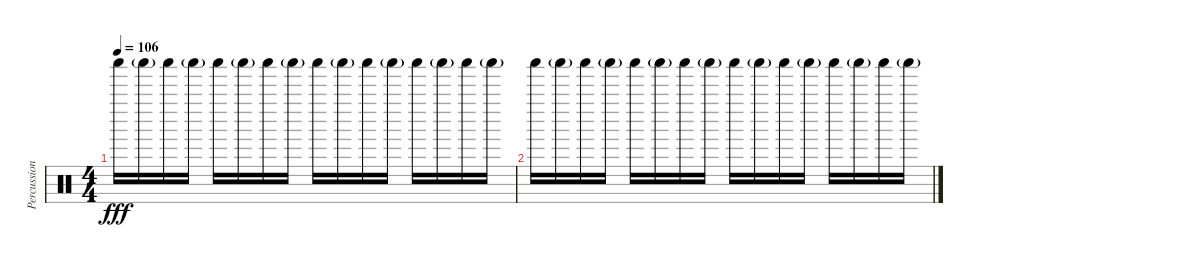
\track ("Percussion 1" "Percussion") {instrument percussion}
\staff {score}
\articulation defaults
\ts (4 4)
\tempo 106
\clef neutral
\ks c "Shaker (hit)".16{dy fff} "Shaker (hit)"{g}.16 "Shaker (hit)".16 "Shaker (hit)"{g}.16 "Shaker (hit)".16 "Shaker (hit)"{g}.16 "Shaker (hit)".16 "Shaker (hit)"{g}.16 "Shaker (hit)".16 "Shaker (hit)"{g}.16 "Shaker (hit)".16 "Shaker (hit)"{g}.16 "Shaker (hit)".16 "Shaker (hit)"{g}.16 "Shaker (hit)".16 "Shaker (hit)"{g}.16
|
"Shaker (hit)".16 "Shaker (hit)"{g}.16 "Shaker (hit)".16 "Shaker (hit)"{g}.16 "Shaker (hit)".16 "Shaker (hit)"{g}.16 "Shaker (hit)".16 "Shaker (hit)"{g}.16 "Shaker (hit)".16 "Shaker (hit)"{g}.16 "Shaker (hit)".16 "Shaker (hit)"{g}.16 "Shaker (hit)".16 "Shaker (hit)"{g}.16 "Shaker (hit)".16 "Shaker (hit)"{g}.16
